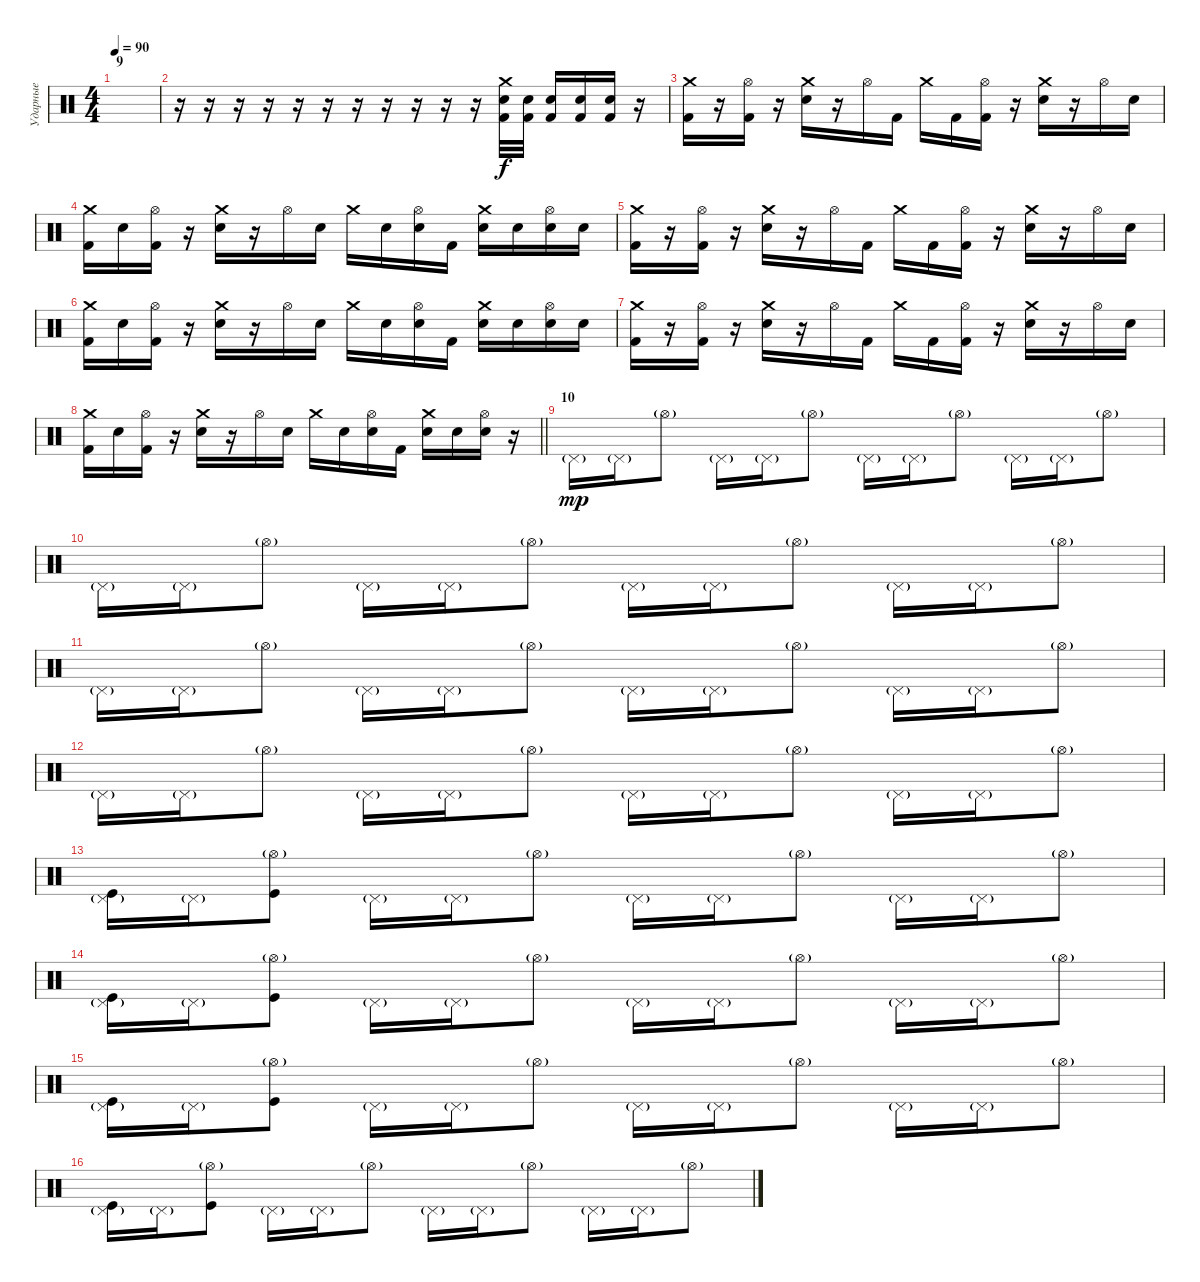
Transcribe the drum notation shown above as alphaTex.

\track ("Ударные" "Ударные") {instrument percussion}
\staff {score}
\articulation defaults
\ts (4 4)
\section ("" "9")
\tempo 90
\clef neutral
\ks c
|
r.16 r.16 r.16 r.16 r.16 r.16 r.16 r.16 r.16 r.16 r.16 ("Crash medium (hit)" "Kick (hit) 2" "Snare (hit) 2").32 ("Kick (hit) 2" "Snare (hit) 2").32 ("Kick (hit) 2" "Snare (hit) 2").16 ("Kick (hit) 2" "Snare (hit) 2").16 ("Kick (hit) 2" "Snare (hit) 2").16 r.16 |
("Crash medium (hit)" "Kick (hit) 2").16 r.16 ("Hi-Hat (open)" "Kick (hit) 2").16 r.16 ("Crash medium (hit)" "Electric Snare (hit)").16 r.16 "Hi-Hat (open)".16 "Kick (hit) 2".16 "Crash medium (hit)".16 "Kick (hit) 2".16 ("Hi-Hat (open)" "Kick (hit) 2").16 r.16 ("Crash medium (hit)" "Electric Snare (hit)").16 r.16 "Hi-Hat (open)".16 "Electric Snare (hit)".16 |
("Crash medium (hit)" "Kick (hit) 2").16 "Electric Snare (hit)".16 ("Hi-Hat (open)" "Kick (hit) 2").16 r.16 ("Crash medium (hit)" "Electric Snare (hit)").16 r.16 "Hi-Hat (open)".16 "Electric Snare (hit)".16 "Crash medium (hit)".16 "Electric Snare (hit)".16 ("Hi-Hat (open)" "Electric Snare (hit)").16 "Kick (hit) 2".16 ("Crash medium (hit)" "Electric Snare (hit)").16 "Electric Snare (hit)".16 ("Hi-Hat (open)" "Electric Snare (hit)").16 "Electric Snare (hit)".16 |
("Crash medium (hit)" "Kick (hit) 2").16 r.16 ("Hi-Hat (open)" "Kick (hit) 2").16 r.16 ("Crash medium (hit)" "Electric Snare (hit)").16 r.16 "Hi-Hat (open)".16 "Kick (hit) 2".16 "Crash medium (hit)".16 "Kick (hit) 2".16 ("Hi-Hat (open)" "Kick (hit) 2").16 r.16 ("Crash medium (hit)" "Electric Snare (hit)").16 r.16 "Hi-Hat (open)".16 "Electric Snare (hit)".16 |
("Crash medium (hit)" "Kick (hit) 2").16 "Electric Snare (hit)".16 ("Hi-Hat (open)" "Kick (hit) 2").16 r.16 ("Crash medium (hit)" "Electric Snare (hit)").16 r.16 "Hi-Hat (open)".16 "Electric Snare (hit)".16 "Crash medium (hit)".16 "Electric Snare (hit)".16 ("Hi-Hat (open)" "Electric Snare (hit)").16 "Kick (hit) 2".16 ("Crash medium (hit)" "Electric Snare (hit)").16 "Electric Snare (hit)".16 ("Hi-Hat (open)" "Electric Snare (hit)").16 "Electric Snare (hit)".16 |
("Crash medium (hit)" "Kick (hit) 2").16 r.16 ("Hi-Hat (open)" "Kick (hit) 2").16 r.16 ("Crash medium (hit)" "Electric Snare (hit)").16 r.16 "Hi-Hat (open)".16 "Kick (hit) 2".16 "Crash medium (hit)".16 "Kick (hit) 2".16 ("Hi-Hat (open)" "Kick (hit) 2").16 r.16 ("Crash medium (hit)" "Electric Snare (hit)").16 r.16 "Hi-Hat (open)".16 "Electric Snare (hit)".16 |
\barLineRight lightlight
("Crash medium (hit)" "Kick (hit) 2").16 "Electric Snare (hit)".16 ("Hi-Hat (open)" "Kick (hit) 2").16 r.16 ("Crash medium (hit)" "Electric Snare (hit)").16 r.16 "Hi-Hat (open)".16 "Electric Snare (hit)".16 "Crash medium (hit)".16 "Electric Snare (hit)".16 ("Hi-Hat (open)" "Electric Snare (hit)").16 "Kick (hit) 2".16 ("Crash medium (hit)" "Electric Snare (hit)").16 "Electric Snare (hit)".16 ("Hi-Hat (open)" "Electric Snare (hit)").16 r.16 |
\section ("" "10")
"Pedal Hi-Hat (hit)"{g}.16{dy mp} "Pedal Hi-Hat (hit)"{g}.16 "Hi-Hat (open)"{g}.8 "Pedal Hi-Hat (hit)"{g}.16 "Pedal Hi-Hat (hit)"{g}.16 "Hi-Hat (open)"{g}.8 "Pedal Hi-Hat (hit)"{g}.16 "Pedal Hi-Hat (hit)"{g}.16 "Hi-Hat (open)"{g}.8 "Pedal Hi-Hat (hit)"{g}.16 "Pedal Hi-Hat (hit)"{g}.16 "Hi-Hat (open)"{g}.8 |
"Pedal Hi-Hat (hit)"{g}.16 "Pedal Hi-Hat (hit)"{g}.16 "Hi-Hat (open)"{g}.8 "Pedal Hi-Hat (hit)"{g}.16 "Pedal Hi-Hat (hit)"{g}.16 "Hi-Hat (open)"{g}.8 "Pedal Hi-Hat (hit)"{g}.16 "Pedal Hi-Hat (hit)"{g}.16 "Hi-Hat (open)"{g}.8 "Pedal Hi-Hat (hit)"{g}.16 "Pedal Hi-Hat (hit)"{g}.16 "Hi-Hat (open)"{g}.8 |
"Pedal Hi-Hat (hit)"{g}.16 "Pedal Hi-Hat (hit)"{g}.16 "Hi-Hat (open)"{g}.8 "Pedal Hi-Hat (hit)"{g}.16 "Pedal Hi-Hat (hit)"{g}.16 "Hi-Hat (open)"{g}.8 "Pedal Hi-Hat (hit)"{g}.16 "Pedal Hi-Hat (hit)"{g}.16 "Hi-Hat (open)"{g}.8 "Pedal Hi-Hat (hit)"{g}.16 "Pedal Hi-Hat (hit)"{g}.16 "Hi-Hat (open)"{g}.8 |
"Pedal Hi-Hat (hit)"{g}.16 "Pedal Hi-Hat (hit)"{g}.16 "Hi-Hat (open)"{g}.8 "Pedal Hi-Hat (hit)"{g}.16 "Pedal Hi-Hat (hit)"{g}.16 "Hi-Hat (open)"{g}.8 "Pedal Hi-Hat (hit)"{g}.16 "Pedal Hi-Hat (hit)"{g}.16 "Hi-Hat (open)"{g}.8 "Pedal Hi-Hat (hit)"{g}.16 "Pedal Hi-Hat (hit)"{g}.16 "Hi-Hat (open)"{g}.8 |
("Pedal Hi-Hat (hit)"{g} "Kick (hit)").16 "Pedal Hi-Hat (hit)"{g}.16 ("Hi-Hat (open)"{g} "Kick (hit)").8 "Pedal Hi-Hat (hit)"{g}.16 "Pedal Hi-Hat (hit)"{g}.16 "Hi-Hat (open)"{g}.8 "Pedal Hi-Hat (hit)"{g}.16 "Pedal Hi-Hat (hit)"{g}.16 "Hi-Hat (open)"{g}.8 "Pedal Hi-Hat (hit)"{g}.16 "Pedal Hi-Hat (hit)"{g}.16 "Hi-Hat (open)"{g}.8 |
("Pedal Hi-Hat (hit)"{g} "Kick (hit)").16 "Pedal Hi-Hat (hit)"{g}.16 ("Hi-Hat (open)"{g} "Kick (hit)").8 "Pedal Hi-Hat (hit)"{g}.16 "Pedal Hi-Hat (hit)"{g}.16 "Hi-Hat (open)"{g}.8 "Pedal Hi-Hat (hit)"{g}.16 "Pedal Hi-Hat (hit)"{g}.16 "Hi-Hat (open)"{g}.8 "Pedal Hi-Hat (hit)"{g}.16 "Pedal Hi-Hat (hit)"{g}.16 "Hi-Hat (open)"{g}.8 |
("Pedal Hi-Hat (hit)"{g} "Kick (hit)").16 "Pedal Hi-Hat (hit)"{g}.16 ("Hi-Hat (open)"{g} "Kick (hit)").8 "Pedal Hi-Hat (hit)"{g}.16 "Pedal Hi-Hat (hit)"{g}.16 "Hi-Hat (open)"{g}.8 "Pedal Hi-Hat (hit)"{g}.16 "Pedal Hi-Hat (hit)"{g}.16 "Hi-Hat (open)"{g}.8 "Pedal Hi-Hat (hit)"{g}.16 "Pedal Hi-Hat (hit)"{g}.16 "Hi-Hat (open)"{g}.8 |
("Pedal Hi-Hat (hit)"{g} "Kick (hit)").16 "Pedal Hi-Hat (hit)"{g}.16 ("Hi-Hat (open)"{g} "Kick (hit)").8 "Pedal Hi-Hat (hit)"{g}.16 "Pedal Hi-Hat (hit)"{g}.16 "Hi-Hat (open)"{g}.8 "Pedal Hi-Hat (hit)"{g}.16 "Pedal Hi-Hat (hit)"{g}.16 "Hi-Hat (open)"{g}.8 "Pedal Hi-Hat (hit)"{g}.16 "Pedal Hi-Hat (hit)"{g}.16 "Hi-Hat (open)"{g}.8
